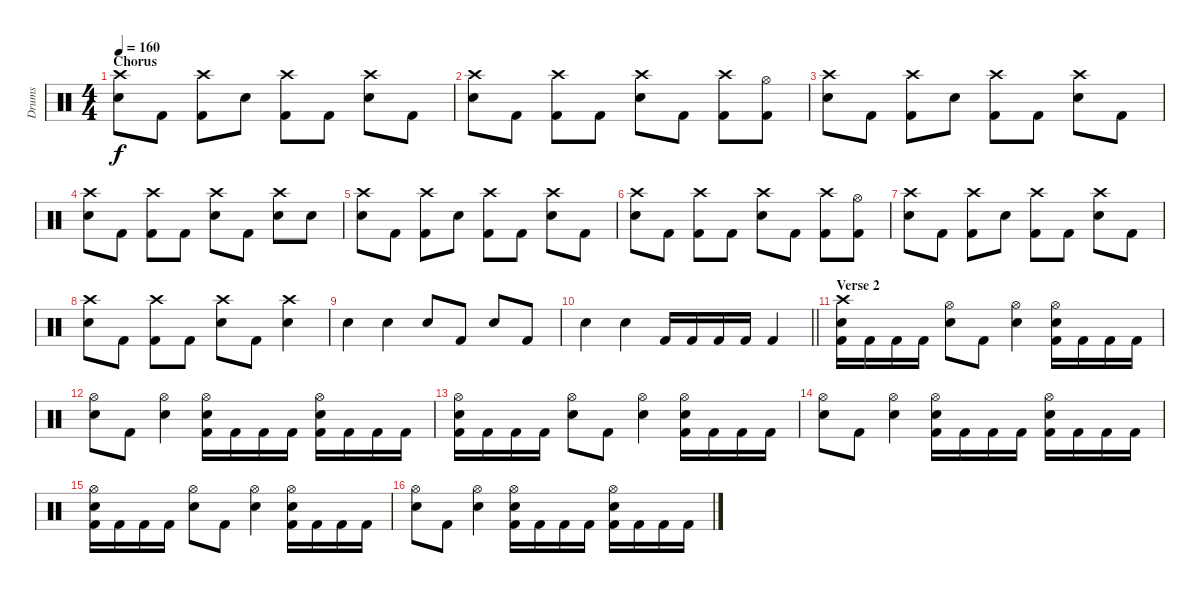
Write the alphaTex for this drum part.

\track ("Drums" "Drums") {instrument percussion}
\staff {score}
\articulation defaults
\ts (4 4)
\section ("" "Chorus")
\tempo 160
\clef neutral
\ks c
("Crash high (hit)" "Electric Snare (hit)").8{dy f} "Kick (hit) 2".8 ("Crash high (hit)" "Kick (hit) 2").8 "Electric Snare (hit)".8 ("Crash high (hit)" "Kick (hit) 2").8 "Kick (hit) 2".8 ("Crash high (hit)" "Electric Snare (hit)").8 "Kick (hit) 2".8 |
("Crash high (hit)" "Electric Snare (hit)").8 "Kick (hit) 2".8 ("Crash high (hit)" "Kick (hit) 2").8 "Kick (hit) 2".8 ("Crash high (hit)" "Electric Snare (hit)").8 "Kick (hit) 2".8 ("Crash high (hit)" "Kick (hit) 2").8 ("Hi-Hat (open)" "Kick (hit) 2").8 |
("Crash high (hit)" "Electric Snare (hit)").8 "Kick (hit) 2".8 ("Crash high (hit)" "Kick (hit) 2").8 "Electric Snare (hit)".8 ("Crash high (hit)" "Kick (hit) 2").8 "Kick (hit) 2".8 ("Crash high (hit)" "Electric Snare (hit)").8 "Kick (hit) 2".8 |
("Crash high (hit)" "Electric Snare (hit)").8 "Kick (hit) 2".8 ("Crash high (hit)" "Kick (hit) 2").8 "Kick (hit) 2".8 ("Crash high (hit)" "Electric Snare (hit)").8 "Kick (hit) 2".8 ("Crash high (hit)" "Electric Snare (hit)").8 "Electric Snare (hit)".8 |
("Crash high (hit)" "Electric Snare (hit)").8 "Kick (hit) 2".8 ("Crash high (hit)" "Kick (hit) 2").8 "Electric Snare (hit)".8 ("Crash high (hit)" "Kick (hit) 2").8 "Kick (hit) 2".8 ("Crash high (hit)" "Electric Snare (hit)").8 "Kick (hit) 2".8 |
("Crash high (hit)" "Electric Snare (hit)").8 "Kick (hit) 2".8 ("Crash high (hit)" "Kick (hit) 2").8 "Kick (hit) 2".8 ("Crash high (hit)" "Electric Snare (hit)").8 "Kick (hit) 2".8 ("Crash high (hit)" "Kick (hit) 2").8 ("Hi-Hat (open)" "Kick (hit) 2").8 |
("Crash high (hit)" "Electric Snare (hit)").8 "Kick (hit) 2".8 ("Crash high (hit)" "Kick (hit) 2").8 "Electric Snare (hit)".8 ("Crash high (hit)" "Kick (hit) 2").8 "Kick (hit) 2".8 ("Crash high (hit)" "Electric Snare (hit)").8 "Kick (hit) 2".8 |
("Crash high (hit)" "Electric Snare (hit)").8 "Kick (hit) 2".8 ("Crash high (hit)" "Kick (hit) 2").8 "Kick (hit) 2".8 ("Crash high (hit)" "Electric Snare (hit)").8 "Kick (hit) 2".8 ("Crash high (hit)" "Electric Snare (hit)").4 |
"Electric Snare (hit)".4 "Electric Snare (hit)".4 "Electric Snare (hit)".8 "Kick (hit) 2".8 "Electric Snare (hit)".8 "Kick (hit) 2".8 |
\barLineRight lightlight "Electric Snare (hit)".4 "Electric Snare (hit)".4 "Kick (hit) 2".16 "Kick (hit) 2".16 "Kick (hit) 2".16 "Kick (hit) 2".16 "Kick (hit) 2".4
|
\section ("" "Verse 2")
("Crash high (hit)" "Electric Snare (hit)" "Kick (hit) 2").16 "Kick (hit) 2".16 "Kick (hit) 2".16 "Kick (hit) 2".16 ("Hi-Hat (open)" "Electric Snare (hit)").8 "Kick (hit) 2".8 ("Hi-Hat (open)" "Electric Snare (hit)").4 ("Hi-Hat (open)" "Electric Snare (hit)" "Kick (hit) 2").16 "Kick (hit) 2".16 "Kick (hit) 2".16 "Kick (hit) 2".16 |
("Hi-Hat (open)" "Electric Snare (hit)").8 "Kick (hit) 2".8 ("Hi-Hat (open)" "Electric Snare (hit)").4 ("Hi-Hat (open)" "Electric Snare (hit)" "Kick (hit) 2").16 "Kick (hit) 2".16 "Kick (hit) 2".16 "Kick (hit) 2".16 ("Hi-Hat (open)" "Electric Snare (hit)" "Kick (hit) 2").16 "Kick (hit) 2".16 "Kick (hit) 2".16 "Kick (hit) 2".16 |
("Hi-Hat (open)" "Electric Snare (hit)" "Kick (hit) 2").16 "Kick (hit) 2".16 "Kick (hit) 2".16 "Kick (hit) 2".16 ("Hi-Hat (open)" "Electric Snare (hit)").8 "Kick (hit) 2".8 ("Hi-Hat (open)" "Electric Snare (hit)").4 ("Hi-Hat (open)" "Electric Snare (hit)" "Kick (hit) 2").16 "Kick (hit) 2".16 "Kick (hit) 2".16 "Kick (hit) 2".16 |
("Hi-Hat (open)" "Electric Snare (hit)").8 "Kick (hit) 2".8 ("Hi-Hat (open)" "Electric Snare (hit)").4 ("Hi-Hat (open)" "Electric Snare (hit)" "Kick (hit) 2").16 "Kick (hit) 2".16 "Kick (hit) 2".16 "Kick (hit) 2".16 ("Hi-Hat (open)" "Electric Snare (hit)" "Kick (hit) 2").16 "Kick (hit) 2".16 "Kick (hit) 2".16 "Kick (hit) 2".16 |
("Hi-Hat (open)" "Electric Snare (hit)" "Kick (hit) 2").16 "Kick (hit) 2".16 "Kick (hit) 2".16 "Kick (hit) 2".16 ("Hi-Hat (open)" "Electric Snare (hit)").8 "Kick (hit) 2".8 ("Hi-Hat (open)" "Electric Snare (hit)").4 ("Hi-Hat (open)" "Electric Snare (hit)" "Kick (hit) 2").16 "Kick (hit) 2".16 "Kick (hit) 2".16 "Kick (hit) 2".16 |
("Hi-Hat (open)" "Electric Snare (hit)").8 "Kick (hit) 2".8 ("Hi-Hat (open)" "Electric Snare (hit)").4 ("Hi-Hat (open)" "Electric Snare (hit)" "Kick (hit) 2").16 "Kick (hit) 2".16 "Kick (hit) 2".16 "Kick (hit) 2".16 ("Hi-Hat (open)" "Electric Snare (hit)" "Kick (hit) 2").16 "Kick (hit) 2".16 "Kick (hit) 2".16 "Kick (hit) 2".16
